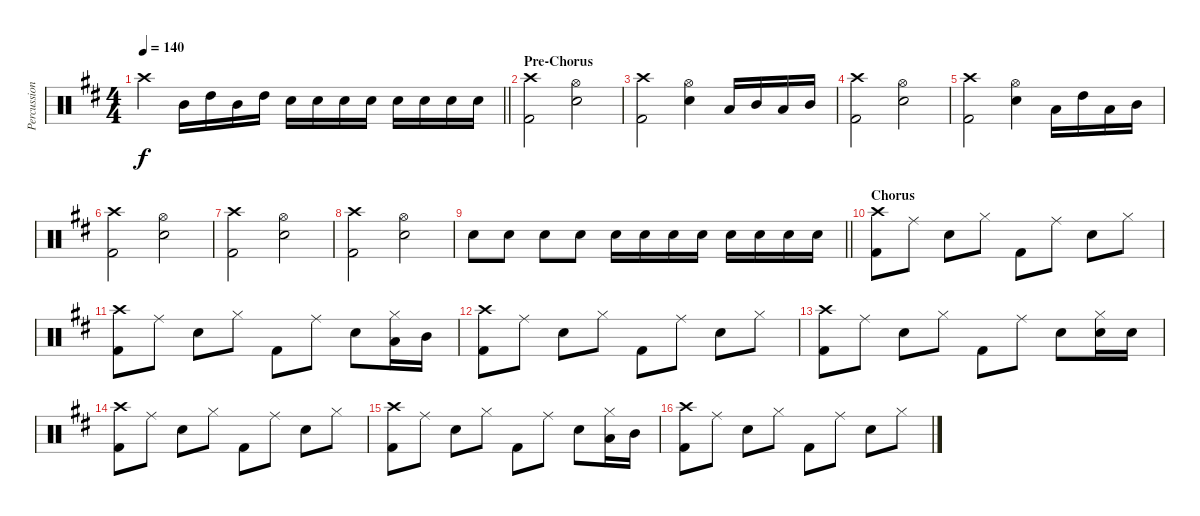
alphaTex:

\track ("Percussion" "Percussion") {instrument percussion}
\staff {score}
\articulation defaults
\ts (4 4)
\tempo 140
\clef neutral
\barLineRight lightlight
\ks d "Crash high (hit)".4{dy f} "Mid Tom (hit)".16 "High Tom (hit)".16 "Mid Tom (hit)".16 "High Tom (hit)".16 "Snare (hit) 2".16 "Snare (hit) 2".16 "Snare (hit) 2".16 "Snare (hit) 2".16 "Snare (hit) 2".16 "Snare (hit) 2".16 "Snare (hit) 2".16 "Snare (hit) 2".16
|
\section ("" "Pre-Chorus")
("Crash high (hit)" "Kick (hit) 2").2 ("Hi-Hat (open)" "Snare (hit) 2").2 |
("Crash high (hit)" "Kick (hit) 2").2 ("Hi-Hat (open)" "Snare (hit) 2").4 "Low Tom (hit)".16 "Mid Tom (hit)".16 "Low Tom (hit)".16 "Mid Tom (hit)".16 |
("Crash high (hit)" "Kick (hit) 2").2 ("Hi-Hat (open)" "Snare (hit) 2").2 |
("Crash high (hit)" "Kick (hit) 2").2 ("Hi-Hat (open)" "Snare (hit) 2").4 "Low Tom (hit)".16 "High Tom (hit)".16 "Low Tom (hit)".16 "Mid Tom (hit)".16 |
("Crash high (hit)" "Kick (hit) 2").2 ("Hi-Hat (open)" "Snare (hit) 2").2 |
("Crash high (hit)" "Kick (hit) 2").2 ("Hi-Hat (open)" "Snare (hit) 2").2 |
("Crash high (hit)" "Kick (hit) 2").2 ("Hi-Hat (open)" "Snare (hit) 2").2 |
\barLineRight lightlight "Snare (hit) 2".8 "Snare (hit) 2".8 "Snare (hit) 2".8 "Snare (hit) 2".8 "Snare (hit) 2".16 "Snare (hit) 2".16 "Snare (hit) 2".16 "Snare (hit) 2".16 "Snare (hit) 2".16 "Snare (hit) 2".16 "Snare (hit) 2".16 "Snare (hit) 2".16
|
\section ("" "Chorus")
("Crash high (hit)" "Kick (hit) 2").8 "Ride (middle)".8 "Snare (hit) 2".8 "Hi-Hat (closed)".8 "Kick (hit) 2".8 "Ride (middle)".8 "Snare (hit) 2".8 "Hi-Hat (closed)".8 |
("Crash high (hit)" "Kick (hit) 2").8 "Ride (middle)".8 "Snare (hit) 2".8 "Hi-Hat (closed)".8 "Kick (hit) 2".8 "Ride (middle)".8 "Snare (hit) 2".8 ("Hi-Hat (closed)" "Low Tom (hit)").16 "Mid Tom (hit)".16 |
("Crash high (hit)" "Kick (hit) 2").8 "Ride (middle)".8 "Snare (hit) 2".8 "Hi-Hat (closed)".8 "Kick (hit) 2".8 "Ride (middle)".8 "Snare (hit) 2".8 "Hi-Hat (closed)".8 |
("Crash high (hit)" "Kick (hit) 2").8 "Ride (middle)".8 "Snare (hit) 2".8 "Hi-Hat (closed)".8 "Kick (hit) 2".8 "Ride (middle)".8 "Snare (hit) 2".8 ("Hi-Hat (closed)" "Snare (hit) 2").16 "Snare (hit) 2".16 |
("Crash high (hit)" "Kick (hit) 2").8 "Ride (middle)".8 "Snare (hit) 2".8 "Hi-Hat (closed)".8 "Kick (hit) 2".8 "Ride (middle)".8 "Snare (hit) 2".8 "Hi-Hat (closed)".8 |
("Crash high (hit)" "Kick (hit) 2").8 "Ride (middle)".8 "Snare (hit) 2".8 "Hi-Hat (closed)".8 "Kick (hit) 2".8 "Ride (middle)".8 "Snare (hit) 2".8 ("Hi-Hat (closed)" "Low Tom (hit)").16 "Mid Tom (hit)".16 |
("Crash high (hit)" "Kick (hit) 2").8 "Ride (middle)".8 "Snare (hit) 2".8 "Hi-Hat (closed)".8 "Kick (hit) 2".8 "Ride (middle)".8 "Snare (hit) 2".8 "Hi-Hat (closed)".8
